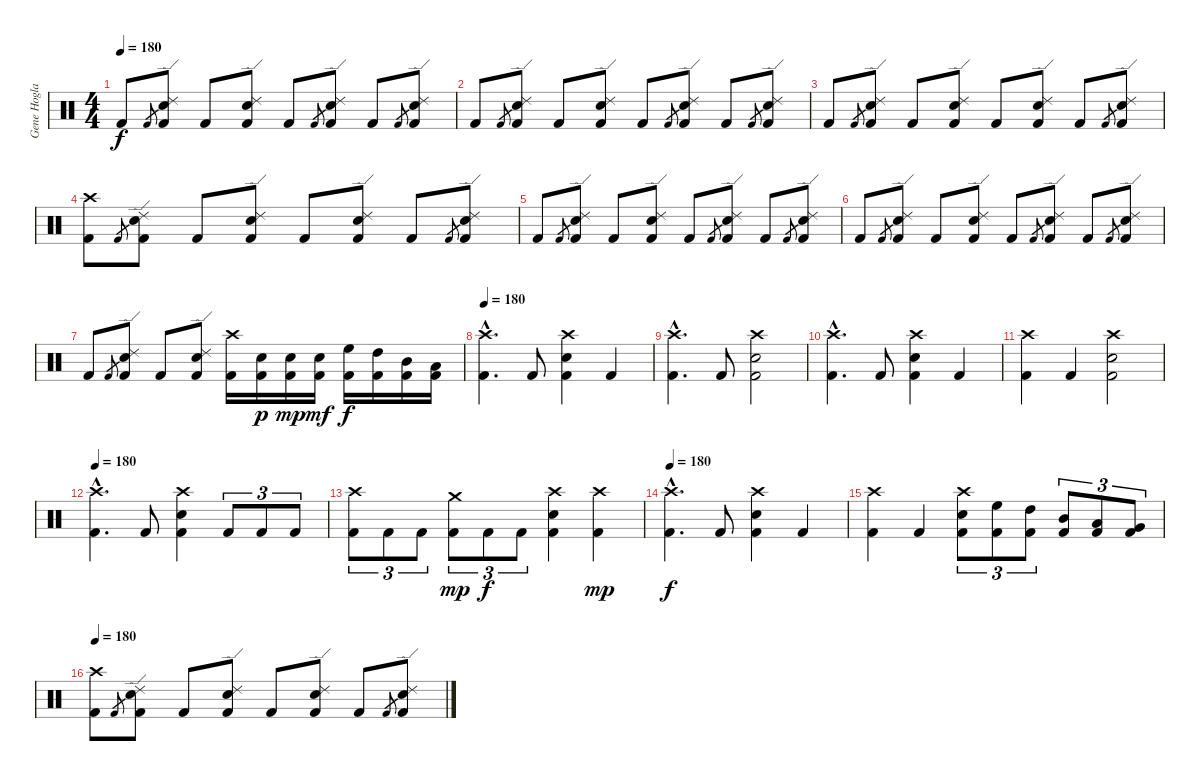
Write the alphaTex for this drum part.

\track ("Gene Hoglan" "Gene Hogla") {instrument percussion}
\staff {score}
\articulation defaults
\ts (4 4)
\tempo 180
\clef neutral
\ks c "Kick (hit) 2".8{dy f} "Kick (hit) 2".8{gr}
("Kick (hit) 2" "Electric Snare (hit)" "Ride (edge) 2").8 "Kick (hit) 2".8 ("Kick (hit) 2" "Electric Snare (hit)" "Ride (edge) 2").8 "Kick (hit) 2".8 "Kick (hit) 2".8{gr} ("Kick (hit) 2" "Electric Snare (hit)" "Ride (edge) 2").8 "Kick (hit) 2".8 "Kick (hit) 2".8{gr} ("Kick (hit) 2" "Electric Snare (hit)" "Ride (edge) 2").8 |
"Kick (hit) 2".8 "Kick (hit) 2".8{gr} ("Kick (hit) 2" "Electric Snare (hit)" "Ride (edge) 2").8 "Kick (hit) 2".8 ("Kick (hit) 2" "Electric Snare (hit)" "Ride (edge) 2").8 "Kick (hit) 2".8 "Kick (hit) 2".8{gr} ("Kick (hit) 2" "Electric Snare (hit)" "Ride (edge) 2").8 "Kick (hit) 2".8 "Kick (hit) 2".8{gr} ("Kick (hit) 2" "Electric Snare (hit)" "Ride (edge) 2").8 |
"Kick (hit) 2".8 "Kick (hit) 2".8{gr} ("Kick (hit) 2" "Electric Snare (hit)" "Ride (edge) 2").8 "Kick (hit) 2".8 ("Kick (hit) 2" "Electric Snare (hit)" "Ride (edge) 2").8 "Kick (hit) 2".8 ("Kick (hit) 2" "Electric Snare (hit)" "Ride (edge) 2").8 "Kick (hit) 2".8 "Kick (hit) 2".8{gr} ("Kick (hit) 2" "Electric Snare (hit)" "Ride (edge) 2").8 |
("Kick (hit) 2" "Crash high (hit)").8 "Kick (hit) 2".8{gr} ("Kick (hit) 2" "Electric Snare (hit)" "Ride (edge) 2").8 "Kick (hit) 2".8 ("Kick (hit) 2" "Electric Snare (hit)" "Ride (edge) 2").8 "Kick (hit) 2".8 ("Kick (hit) 2" "Electric Snare (hit)" "Ride (edge) 2").8 "Kick (hit) 2".8 "Kick (hit) 2".8{gr} ("Kick (hit) 2" "Electric Snare (hit)" "Ride (edge) 2").8 |
"Kick (hit) 2".8 "Kick (hit) 2".8{gr} ("Kick (hit) 2" "Electric Snare (hit)" "Ride (edge) 2").8 "Kick (hit) 2".8 ("Kick (hit) 2" "Electric Snare (hit)" "Ride (edge) 2").8 "Kick (hit) 2".8 "Kick (hit) 2".8{gr} ("Kick (hit) 2" "Electric Snare (hit)" "Ride (edge) 2").8 "Kick (hit) 2".8 "Kick (hit) 2".8{gr} ("Kick (hit) 2" "Electric Snare (hit)" "Ride (edge) 2").8 |
"Kick (hit) 2".8 "Kick (hit) 2".8{gr} ("Kick (hit) 2" "Electric Snare (hit)" "Ride (edge) 2").8 "Kick (hit) 2".8 ("Kick (hit) 2" "Electric Snare (hit)" "Ride (edge) 2").8 "Kick (hit) 2".8 "Kick (hit) 2".8{gr} ("Kick (hit) 2" "Electric Snare (hit)" "Ride (edge) 2").8 "Kick (hit) 2".8 "Kick (hit) 2".8{gr} ("Kick (hit) 2" "Electric Snare (hit)" "Ride (edge) 2").8 |
"Kick (hit) 2".8 "Kick (hit) 2".8{gr} ("Kick (hit) 2" "Electric Snare (hit)" "Ride (edge) 2").8 "Kick (hit) 2".8 ("Kick (hit) 2" "Electric Snare (hit)" "Ride (edge) 2").8 ("Kick (hit) 2" "Crash high (hit)").16 ("Kick (hit) 2" "Electric Snare (hit)").16{dy p} ("Kick (hit) 2" "Electric Snare (hit)").16{dy mp} ("Kick (hit) 2" "Electric Snare (hit)").16{dy mf} ("Kick (hit) 2" "High Floor Tom (hit)").16{dy f} ("Kick (hit) 2" "High Tom (hit)").16 ("Kick (hit) 2" "Mid Tom (hit)").16 ("Kick (hit) 2" "Low Tom (hit)").16 |
\tempo 180
("Kick (hit) 2"{hac} "Crash high (hit)"{hac}).4{d} "Kick (hit) 2".8 ("Kick (hit) 2" "Electric Snare (hit)" "Crash high (hit)").4 "Kick (hit) 2".4 |
("Kick (hit) 2"{hac} "Crash high (hit)"{hac}).4{d} "Kick (hit) 2".8 ("Kick (hit) 2" "Electric Snare (hit)" "Crash high (hit)").2 |
("Kick (hit) 2"{hac} "Crash high (hit)"{hac}).4{d} "Kick (hit) 2".8 ("Kick (hit) 2" "Electric Snare (hit)" "Crash high (hit)").4 "Kick (hit) 2".4 |
("Kick (hit) 2" "Crash high (hit)").4 "Kick (hit) 2".4 ("Kick (hit) 2" "Electric Snare (hit)" "Crash high (hit)").2 |
\tempo 180
("Kick (hit) 2"{hac} "Crash high (hit)"{hac}).4{d} "Kick (hit) 2".8 ("Kick (hit) 2" "Electric Snare (hit)" "Crash high (hit)").4 "Kick (hit) 2".8{tu (3 2)} "Kick (hit) 2".8{tu (3 2)} "Kick (hit) 2".8{tu (3 2)} |
("Kick (hit) 2" "Crash high (hit)").8{tu (3 2)} "Kick (hit) 2".8{tu (3 2)} "Kick (hit) 2".8{tu (3 2)} ("Kick (hit) 2" "Crash medium (hit)").8{tu (3 2) dy mp} "Kick (hit) 2".8{tu (3 2) dy f} "Kick (hit) 2".8{tu (3 2)} ("Kick (hit) 2" "Electric Snare (hit)" "Crash high (hit)").4 ("Kick (hit) 2" "Crash high (hit)").4{dy mp} |
\tempo 180
("Kick (hit) 2"{hac} "Crash high (hit)"{hac}).4{d dy f} "Kick (hit) 2".8 ("Kick (hit) 2" "Electric Snare (hit)" "Crash high (hit)").4 "Kick (hit) 2".4 |
("Kick (hit) 2" "Crash high (hit)").4 "Kick (hit) 2".4 ("Kick (hit) 2" "Electric Snare (hit)" "Crash high (hit)").8{tu (3 2)} ("Kick (hit) 2" "High Floor Tom (hit)").8{tu (3 2)} ("Kick (hit) 2" "High Tom (hit)").8{tu (3 2)} ("Kick (hit) 2" "Mid Tom (hit)").8{tu (3 2)} ("Kick (hit) 2" "Low Tom (hit)").8{tu (3 2)} ("Kick (hit) 2" "Very Low Tom (hit)").8{tu (3 2)} |
\tempo 180
("Kick (hit) 2" "Crash high (hit)").8 "Kick (hit) 2".8{gr} ("Kick (hit) 2" "Electric Snare (hit)" "Ride (edge) 2").8 "Kick (hit) 2".8 ("Kick (hit) 2" "Electric Snare (hit)" "Ride (edge) 2").8 "Kick (hit) 2".8 ("Kick (hit) 2" "Electric Snare (hit)" "Ride (edge) 2").8 "Kick (hit) 2".8 "Kick (hit) 2".8{gr} ("Kick (hit) 2" "Electric Snare (hit)" "Ride (edge) 2").8
